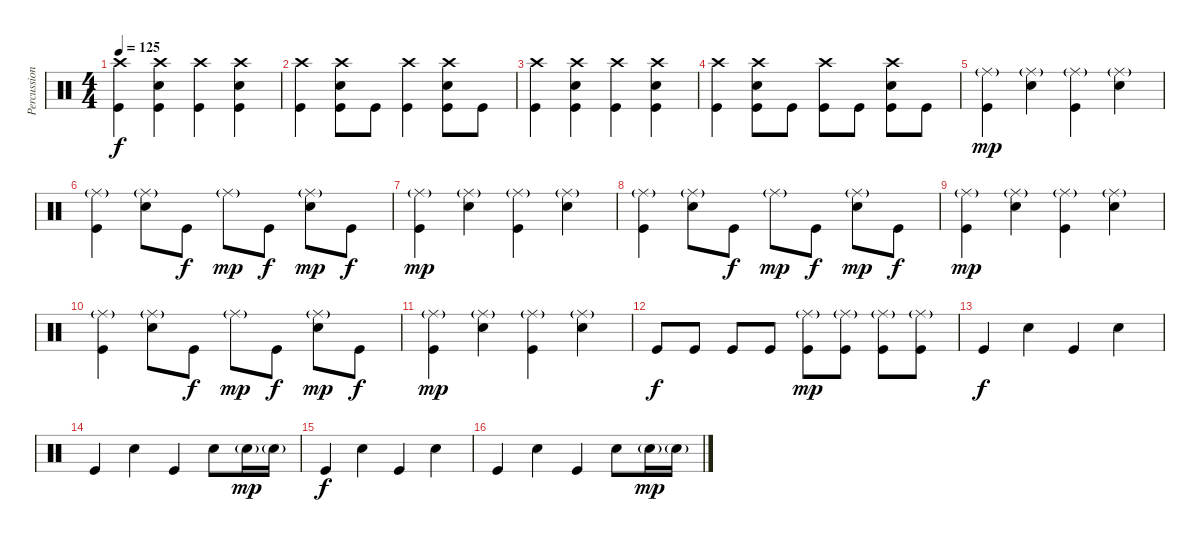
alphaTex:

\track ("Percussion" "Percussion") {instrument percussion}
\staff {score}
\articulation defaults
\ts (4 4)
\tempo 125
\clef neutral
\ks c
("Crash high (hit)" "Kick (hit)").4{dy f} ("Crash high (hit)" "Electric Snare (hit)" "Kick (hit)").4 ("Crash high (hit)" "Kick (hit)").4 ("Crash high (hit)" "Electric Snare (hit)" "Kick (hit)").4 |
("Crash high (hit)" "Kick (hit)").4 ("Crash high (hit)" "Electric Snare (hit)" "Kick (hit)").8 "Kick (hit)".8 ("Crash high (hit)" "Kick (hit)").4 ("Crash high (hit)" "Electric Snare (hit)" "Kick (hit)").8 "Kick (hit)".8 |
("Crash high (hit)" "Kick (hit)").4 ("Crash high (hit)" "Electric Snare (hit)" "Kick (hit)").4 ("Crash high (hit)" "Kick (hit)").4 ("Crash high (hit)" "Electric Snare (hit)" "Kick (hit)").4 |
("Crash high (hit)" "Kick (hit)").4 ("Crash high (hit)" "Electric Snare (hit)" "Kick (hit)").8 "Kick (hit)".8 ("Crash high (hit)" "Kick (hit)").8 "Kick (hit)".8 ("Crash high (hit)" "Electric Snare (hit)" "Kick (hit)").8 "Kick (hit)".8 |
("Ride (middle)"{g} "Kick (hit)").4{dy mp} ("Ride (middle)"{g} "Electric Snare (hit)").4 ("Ride (middle)"{g} "Kick (hit)").4 ("Ride (middle)"{g} "Electric Snare (hit)").4 |
("Ride (middle)"{g} "Kick (hit)").4 ("Ride (middle)"{g} "Electric Snare (hit)").8 "Kick (hit)".8{dy f} "Ride (middle)"{g}.8{dy mp} "Kick (hit)".8{dy f} ("Ride (middle)"{g} "Electric Snare (hit)").8{dy mp} "Kick (hit)".8{dy f} |
("Ride (middle)"{g} "Kick (hit)").4{dy mp} ("Ride (middle)"{g} "Electric Snare (hit)").4 ("Ride (middle)"{g} "Kick (hit)").4 ("Ride (middle)"{g} "Electric Snare (hit)").4 |
("Ride (middle)"{g} "Kick (hit)").4 ("Ride (middle)"{g} "Electric Snare (hit)").8 "Kick (hit)".8{dy f} "Ride (middle)"{g}.8{dy mp} "Kick (hit)".8{dy f} ("Ride (middle)"{g} "Electric Snare (hit)").8{dy mp} "Kick (hit)".8{dy f} |
("Ride (middle)"{g} "Kick (hit)").4{dy mp} ("Ride (middle)"{g} "Electric Snare (hit)").4 ("Ride (middle)"{g} "Kick (hit)").4 ("Ride (middle)"{g} "Electric Snare (hit)").4 |
("Ride (middle)"{g} "Kick (hit)").4 ("Ride (middle)"{g} "Electric Snare (hit)").8 "Kick (hit)".8{dy f} "Ride (middle)"{g}.8{dy mp} "Kick (hit)".8{dy f} ("Ride (middle)"{g} "Electric Snare (hit)").8{dy mp} "Kick (hit)".8{dy f} |
("Ride (middle)"{g} "Kick (hit)").4{dy mp} ("Ride (middle)"{g} "Electric Snare (hit)").4 ("Ride (middle)"{g} "Kick (hit)").4 ("Ride (middle)"{g} "Electric Snare (hit)").4 |
"Kick (hit)".8{dy f} "Kick (hit)".8 "Kick (hit)".8 "Kick (hit)".8 ("Ride (middle)"{g} "Kick (hit)").8{dy mp} ("Ride (middle)"{g} "Kick (hit)").8 ("Ride (middle)"{g} "Kick (hit)").8 ("Ride (middle)"{g} "Kick (hit)").8 |
"Kick (hit)".4{dy f} "Electric Snare (hit)".4 "Kick (hit)".4 "Electric Snare (hit)".4 |
"Kick (hit)".4 "Electric Snare (hit)".4 "Kick (hit)".4 "Electric Snare (hit)".8 "Electric Snare (hit)"{g}.16{dy mp} "Electric Snare (hit)"{g}.16 |
"Kick (hit)".4{dy f} "Electric Snare (hit)".4 "Kick (hit)".4 "Electric Snare (hit)".4 |
"Kick (hit)".4 "Electric Snare (hit)".4 "Kick (hit)".4 "Electric Snare (hit)".8 "Electric Snare (hit)"{g}.16{dy mp} "Electric Snare (hit)"{g}.16
